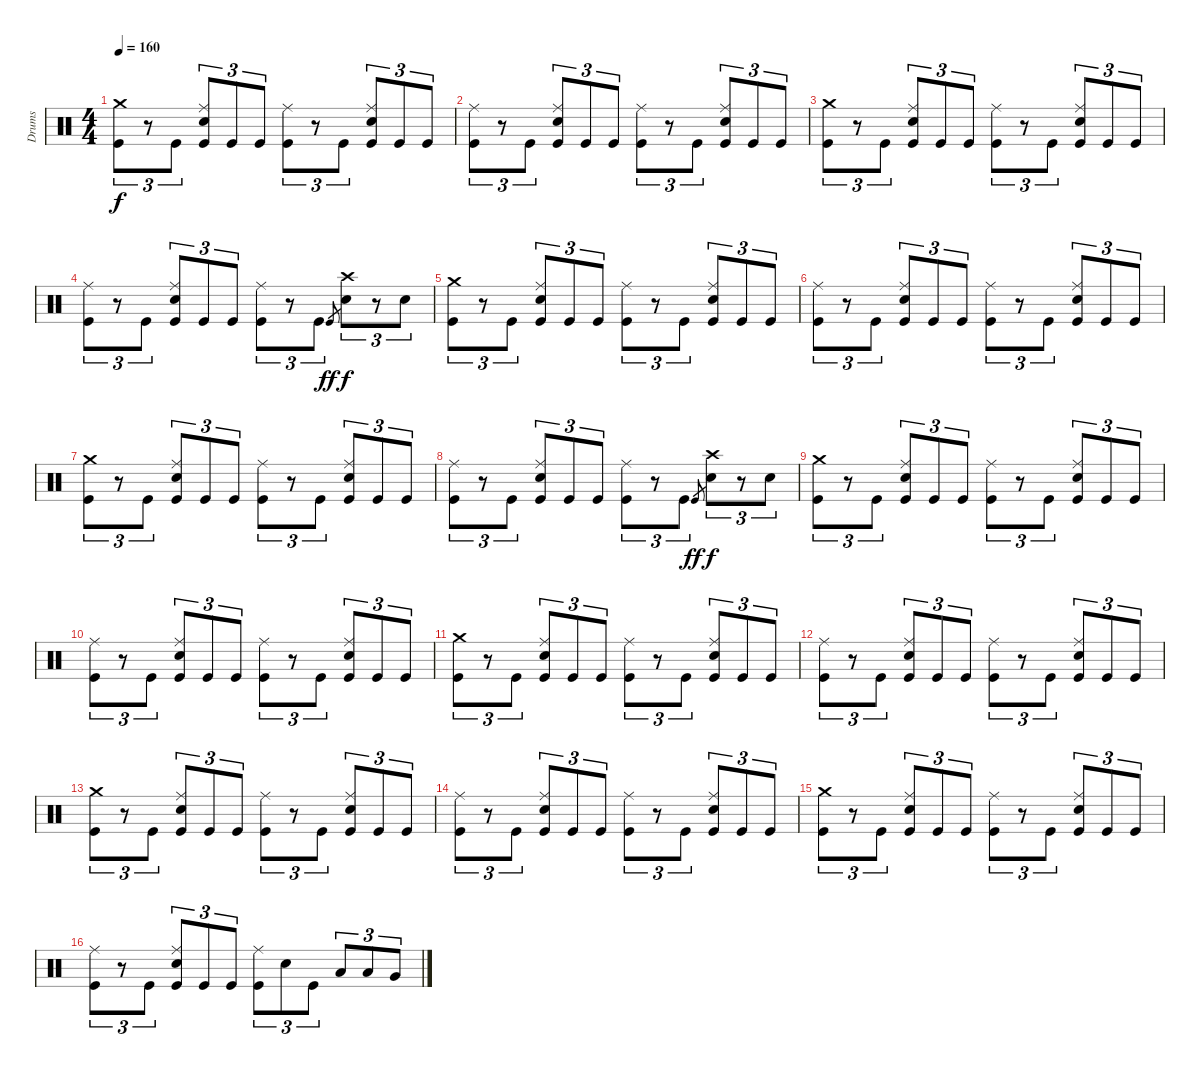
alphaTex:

\track ("Drums" "Drums") {instrument percussion}
\staff {score}
\articulation defaults
\ts (4 4)
\tempo 160
\clef neutral
\ks c
("Crash medium (hit)" "Kick (hit)").8{tu (3 2) dy f} r.8{tu (3 2)} "Kick (hit)".8{tu (3 2)} ("Ride (middle)" "Snare (hit) 2" "Kick (hit)").8{tu (3 2)} "Kick (hit)".8{tu (3 2)} "Kick (hit)".8{tu (3 2)} ("Ride (middle)" "Kick (hit)").8{tu (3 2)} r.8{tu (3 2)} "Kick (hit)".8{tu (3 2)} ("Ride (middle)" "Snare (hit) 2" "Kick (hit)").8{tu (3 2)} "Kick (hit)".8{tu (3 2)} "Kick (hit)".8{tu (3 2)} |
("Ride (middle)" "Kick (hit)").8{tu (3 2)} r.8{tu (3 2)} "Kick (hit)".8{tu (3 2)} ("Ride (middle)" "Snare (hit) 2" "Kick (hit)").8{tu (3 2)} "Kick (hit)".8{tu (3 2)} "Kick (hit)".8{tu (3 2)} ("Ride (middle)" "Kick (hit)").8{tu (3 2)} r.8{tu (3 2)} "Kick (hit)".8{tu (3 2)} ("Ride (middle)" "Snare (hit) 2" "Kick (hit)").8{tu (3 2)} "Kick (hit)".8{tu (3 2)} "Kick (hit)".8{tu (3 2)} |
("Crash medium (hit)" "Kick (hit)").8{tu (3 2)} r.8{tu (3 2)} "Kick (hit)".8{tu (3 2)} ("Ride (middle)" "Snare (hit) 2" "Kick (hit)").8{tu (3 2)} "Kick (hit)".8{tu (3 2)} "Kick (hit)".8{tu (3 2)} ("Ride (middle)" "Kick (hit)").8{tu (3 2)} r.8{tu (3 2)} "Kick (hit)".8{tu (3 2)} ("Ride (middle)" "Snare (hit) 2" "Kick (hit)").8{tu (3 2)} "Kick (hit)".8{tu (3 2)} "Kick (hit)".8{tu (3 2)} |
("Ride (middle)" "Kick (hit)").8{tu (3 2)} r.8{tu (3 2)} "Kick (hit)".8{tu (3 2)} ("Ride (middle)" "Snare (hit) 2" "Kick (hit)").8{tu (3 2)} "Kick (hit)".8{tu (3 2)} "Kick (hit)".8{tu (3 2)} ("Ride (middle)" "Kick (hit)").8{tu (3 2)} r.8{tu (3 2)} "Kick (hit)".8{tu (3 2)} "Kick (hit)".8{gr dy ff} ("Crash high (hit)" "Snare (hit) 2").8{tu (3 2) dy f} r.8{tu (3 2)} "Snare (hit) 2".8{tu (3 2)} |
("Crash medium (hit)" "Kick (hit)").8{tu (3 2)} r.8{tu (3 2)} "Kick (hit)".8{tu (3 2)} ("Ride (middle)" "Snare (hit) 2" "Kick (hit)").8{tu (3 2)} "Kick (hit)".8{tu (3 2)} "Kick (hit)".8{tu (3 2)} ("Ride (middle)" "Kick (hit)").8{tu (3 2)} r.8{tu (3 2)} "Kick (hit)".8{tu (3 2)} ("Ride (middle)" "Snare (hit) 2" "Kick (hit)").8{tu (3 2)} "Kick (hit)".8{tu (3 2)} "Kick (hit)".8{tu (3 2)} |
("Ride (middle)" "Kick (hit)").8{tu (3 2)} r.8{tu (3 2)} "Kick (hit)".8{tu (3 2)} ("Ride (middle)" "Snare (hit) 2" "Kick (hit)").8{tu (3 2)} "Kick (hit)".8{tu (3 2)} "Kick (hit)".8{tu (3 2)} ("Ride (middle)" "Kick (hit)").8{tu (3 2)} r.8{tu (3 2)} "Kick (hit)".8{tu (3 2)} ("Ride (middle)" "Snare (hit) 2" "Kick (hit)").8{tu (3 2)} "Kick (hit)".8{tu (3 2)} "Kick (hit)".8{tu (3 2)} |
("Crash medium (hit)" "Kick (hit)").8{tu (3 2)} r.8{tu (3 2)} "Kick (hit)".8{tu (3 2)} ("Ride (middle)" "Snare (hit) 2" "Kick (hit)").8{tu (3 2)} "Kick (hit)".8{tu (3 2)} "Kick (hit)".8{tu (3 2)} ("Ride (middle)" "Kick (hit)").8{tu (3 2)} r.8{tu (3 2)} "Kick (hit)".8{tu (3 2)} ("Ride (middle)" "Snare (hit) 2" "Kick (hit)").8{tu (3 2)} "Kick (hit)".8{tu (3 2)} "Kick (hit)".8{tu (3 2)} |
("Ride (middle)" "Kick (hit)").8{tu (3 2)} r.8{tu (3 2)} "Kick (hit)".8{tu (3 2)} ("Ride (middle)" "Snare (hit) 2" "Kick (hit)").8{tu (3 2)} "Kick (hit)".8{tu (3 2)} "Kick (hit)".8{tu (3 2)} ("Ride (middle)" "Kick (hit)").8{tu (3 2)} r.8{tu (3 2)} "Kick (hit)".8{tu (3 2)} "Kick (hit)".8{gr dy ff} ("Crash high (hit)" "Snare (hit) 2").8{tu (3 2) dy f} r.8{tu (3 2)} "Snare (hit) 2".8{tu (3 2)} |
("Crash medium (hit)" "Kick (hit)").8{tu (3 2)} r.8{tu (3 2)} "Kick (hit)".8{tu (3 2)} ("Ride (middle)" "Snare (hit) 2" "Kick (hit)").8{tu (3 2)} "Kick (hit)".8{tu (3 2)} "Kick (hit)".8{tu (3 2)} ("Ride (middle)" "Kick (hit)").8{tu (3 2)} r.8{tu (3 2)} "Kick (hit)".8{tu (3 2)} ("Ride (middle)" "Snare (hit) 2" "Kick (hit)").8{tu (3 2)} "Kick (hit)".8{tu (3 2)} "Kick (hit)".8{tu (3 2)} |
("Ride (middle)" "Kick (hit)").8{tu (3 2)} r.8{tu (3 2)} "Kick (hit)".8{tu (3 2)} ("Ride (middle)" "Snare (hit) 2" "Kick (hit)").8{tu (3 2)} "Kick (hit)".8{tu (3 2)} "Kick (hit)".8{tu (3 2)} ("Ride (middle)" "Kick (hit)").8{tu (3 2)} r.8{tu (3 2)} "Kick (hit)".8{tu (3 2)} ("Ride (middle)" "Snare (hit) 2" "Kick (hit)").8{tu (3 2)} "Kick (hit)".8{tu (3 2)} "Kick (hit)".8{tu (3 2)} |
("Crash medium (hit)" "Kick (hit)").8{tu (3 2)} r.8{tu (3 2)} "Kick (hit)".8{tu (3 2)} ("Ride (middle)" "Snare (hit) 2" "Kick (hit)").8{tu (3 2)} "Kick (hit)".8{tu (3 2)} "Kick (hit)".8{tu (3 2)} ("Ride (middle)" "Kick (hit)").8{tu (3 2)} r.8{tu (3 2)} "Kick (hit)".8{tu (3 2)} ("Ride (middle)" "Snare (hit) 2" "Kick (hit)").8{tu (3 2)} "Kick (hit)".8{tu (3 2)} "Kick (hit)".8{tu (3 2)} |
("Ride (middle)" "Kick (hit)").8{tu (3 2)} r.8{tu (3 2)} "Kick (hit)".8{tu (3 2)} ("Ride (middle)" "Snare (hit) 2" "Kick (hit)").8{tu (3 2)} "Kick (hit)".8{tu (3 2)} "Kick (hit)".8{tu (3 2)} ("Ride (middle)" "Kick (hit)").8{tu (3 2)} r.8{tu (3 2)} "Kick (hit)".8{tu (3 2)} ("Ride (middle)" "Snare (hit) 2" "Kick (hit)").8{tu (3 2)} "Kick (hit)".8{tu (3 2)} "Kick (hit)".8{tu (3 2)} |
("Crash medium (hit)" "Kick (hit)").8{tu (3 2)} r.8{tu (3 2)} "Kick (hit)".8{tu (3 2)} ("Ride (middle)" "Snare (hit) 2" "Kick (hit)").8{tu (3 2)} "Kick (hit)".8{tu (3 2)} "Kick (hit)".8{tu (3 2)} ("Ride (middle)" "Kick (hit)").8{tu (3 2)} r.8{tu (3 2)} "Kick (hit)".8{tu (3 2)} ("Ride (middle)" "Snare (hit) 2" "Kick (hit)").8{tu (3 2)} "Kick (hit)".8{tu (3 2)} "Kick (hit)".8{tu (3 2)} |
("Ride (middle)" "Kick (hit)").8{tu (3 2)} r.8{tu (3 2)} "Kick (hit)".8{tu (3 2)} ("Ride (middle)" "Snare (hit) 2" "Kick (hit)").8{tu (3 2)} "Kick (hit)".8{tu (3 2)} "Kick (hit)".8{tu (3 2)} ("Ride (middle)" "Kick (hit)").8{tu (3 2)} r.8{tu (3 2)} "Kick (hit)".8{tu (3 2)} ("Ride (middle)" "Snare (hit) 2" "Kick (hit)").8{tu (3 2)} "Kick (hit)".8{tu (3 2)} "Kick (hit)".8{tu (3 2)} |
("Crash medium (hit)" "Kick (hit)").8{tu (3 2)} r.8{tu (3 2)} "Kick (hit)".8{tu (3 2)} ("Ride (middle)" "Snare (hit) 2" "Kick (hit)").8{tu (3 2)} "Kick (hit)".8{tu (3 2)} "Kick (hit)".8{tu (3 2)} ("Ride (middle)" "Kick (hit)").8{tu (3 2)} r.8{tu (3 2)} "Kick (hit)".8{tu (3 2)} ("Ride (middle)" "Snare (hit) 2" "Kick (hit)").8{tu (3 2)} "Kick (hit)".8{tu (3 2)} "Kick (hit)".8{tu (3 2)} |
("Ride (middle)" "Kick (hit)").8{tu (3 2)} r.8{tu (3 2)} "Kick (hit)".8{tu (3 2)} ("Ride (middle)" "Snare (hit) 2" "Kick (hit)").8{tu (3 2)} "Kick (hit)".8{tu (3 2)} "Kick (hit)".8{tu (3 2)} ("Ride (middle)" "Kick (hit)").8{tu (3 2)} "Snare (hit) 2".8{tu (3 2)} "Kick (hit)".8{tu (3 2)} "Low Tom (hit)".8{tu (3 2)} "Low Tom (hit)".8{tu (3 2)} "Very Low Tom (hit)".8{tu (3 2)}
